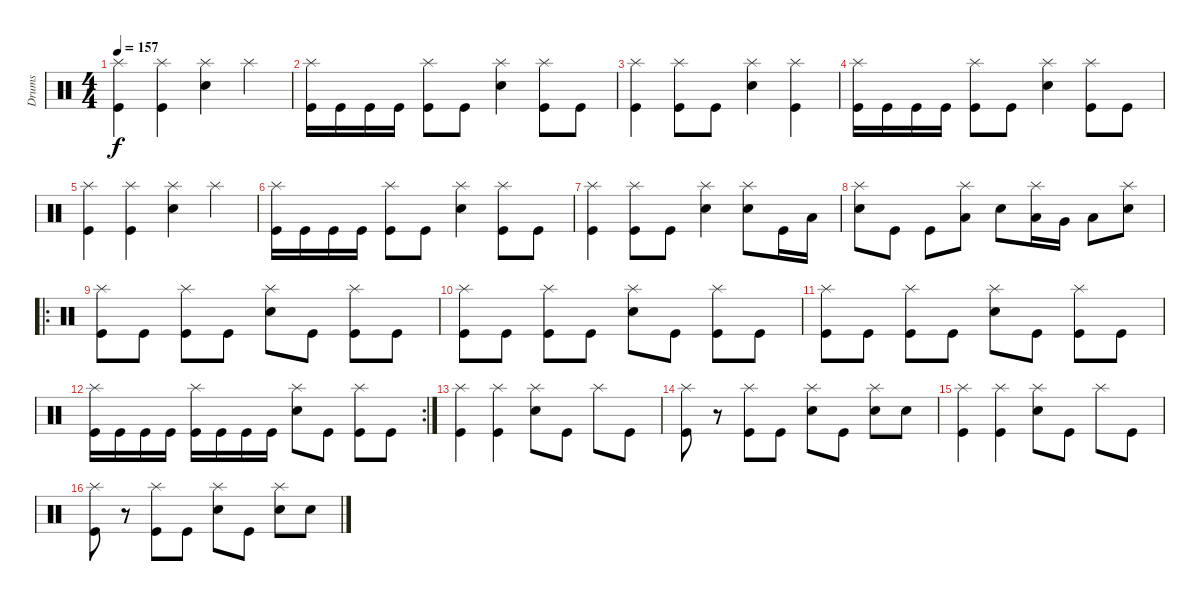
\track ("Drums" "Drums") {instrument percussion}
\staff {score}
\articulation defaults
\ts (4 4)
\tempo 157
\clef neutral
\ks c
("Splash (hit)" "Kick (hit)").4{dy f} ("Splash (hit)" "Kick (hit)").4 ("Splash (hit)" "Electric Snare (hit)").4 "Splash (hit)".4 |
("Splash (hit)" "Kick (hit)").16 "Kick (hit)".16 "Kick (hit)".16 "Kick (hit)".16 ("Splash (hit)" "Kick (hit)").8 "Kick (hit)".8 ("Splash (hit)" "Electric Snare (hit)").4 ("Splash (hit)" "Kick (hit)").8 "Kick (hit)".8 |
("Splash (hit)" "Kick (hit)").4 ("Splash (hit)" "Kick (hit)").8 "Kick (hit)".8 ("Splash (hit)" "Electric Snare (hit)").4 ("Splash (hit)" "Kick (hit)").4 |
("Splash (hit)" "Kick (hit)").16 "Kick (hit)".16 "Kick (hit)".16 "Kick (hit)".16 ("Splash (hit)" "Kick (hit)").8 "Kick (hit)".8 ("Splash (hit)" "Electric Snare (hit)").4 ("Splash (hit)" "Kick (hit)").8 "Kick (hit)".8 |
("Splash (hit)" "Kick (hit)").4 ("Splash (hit)" "Kick (hit)").4 ("Splash (hit)" "Electric Snare (hit)").4 "Splash (hit)".4 |
("Splash (hit)" "Kick (hit)").16 "Kick (hit)".16 "Kick (hit)".16 "Kick (hit)".16 ("Splash (hit)" "Kick (hit)").8 "Kick (hit)".8 ("Splash (hit)" "Electric Snare (hit)").4 ("Splash (hit)" "Kick (hit)").8 "Kick (hit)".8 |
("Splash (hit)" "Kick (hit)").4 ("Splash (hit)" "Kick (hit)").8 "Kick (hit)".8 ("Splash (hit)" "Electric Snare (hit)").4 ("Splash (hit)" "Electric Snare (hit)").8 "Kick (hit)".16 "Low Tom (hit)".16 |
("Splash (hit)" "Electric Snare (hit)").8 "Kick (hit)".8 "Kick (hit)".8 ("Splash (hit)" "Low Tom (hit)").8 "Electric Snare (hit)".8 ("Splash (hit)" "Low Tom (hit)").16 "Very Low Tom (hit)".16 "Low Tom (hit)".8 ("Splash (hit)" "Electric Snare (hit)").8 |
\ro
("Splash (hit)" "Kick (hit)").8 "Kick (hit)".8 ("Splash (hit)" "Kick (hit)").8 "Kick (hit)".8 ("Splash (hit)" "Electric Snare (hit)").8 "Kick (hit)".8 ("Splash (hit)" "Kick (hit)").8 "Kick (hit)".8 |
("Splash (hit)" "Kick (hit)").8 "Kick (hit)".8 ("Splash (hit)" "Kick (hit)").8 "Kick (hit)".8 ("Splash (hit)" "Electric Snare (hit)").8 "Kick (hit)".8 ("Splash (hit)" "Kick (hit)").8 "Kick (hit)".8 |
("Splash (hit)" "Kick (hit)").8 "Kick (hit)".8 ("Splash (hit)" "Kick (hit)").8 "Kick (hit)".8 ("Splash (hit)" "Electric Snare (hit)").8 "Kick (hit)".8 ("Splash (hit)" "Kick (hit)").8 "Kick (hit)".8 |
\rc 2
("Splash (hit)" "Kick (hit)").16 "Kick (hit)".16 "Kick (hit)".16 "Kick (hit)".16 ("Splash (hit)" "Kick (hit)").16 "Kick (hit)".16 "Kick (hit)".16 "Kick (hit)".16 ("Splash (hit)" "Electric Snare (hit)").8 "Kick (hit)".8 ("Splash (hit)" "Kick (hit)").8 "Kick (hit)".8 |
("Splash (hit)" "Kick (hit)").4 ("Splash (hit)" "Kick (hit)").4 ("Splash (hit)" "Electric Snare (hit)").8 "Kick (hit)".8 "Splash (hit)".8 "Kick (hit)".8 |
("Splash (hit)" "Kick (hit)").8 r.8 ("Splash (hit)" "Kick (hit)").8 "Kick (hit)".8 ("Splash (hit)" "Electric Snare (hit)").8 "Kick (hit)".8 ("Splash (hit)" "Electric Snare (hit)").8 "Electric Snare (hit)".8 |
("Splash (hit)" "Kick (hit)").4 ("Splash (hit)" "Kick (hit)").4 ("Splash (hit)" "Electric Snare (hit)").8 "Kick (hit)".8 "Splash (hit)".8 "Kick (hit)".8 |
("Splash (hit)" "Kick (hit)").8 r.8 ("Splash (hit)" "Kick (hit)").8 "Kick (hit)".8 ("Splash (hit)" "Electric Snare (hit)").8 "Kick (hit)".8 ("Splash (hit)" "Electric Snare (hit)").8 "Electric Snare (hit)".8
